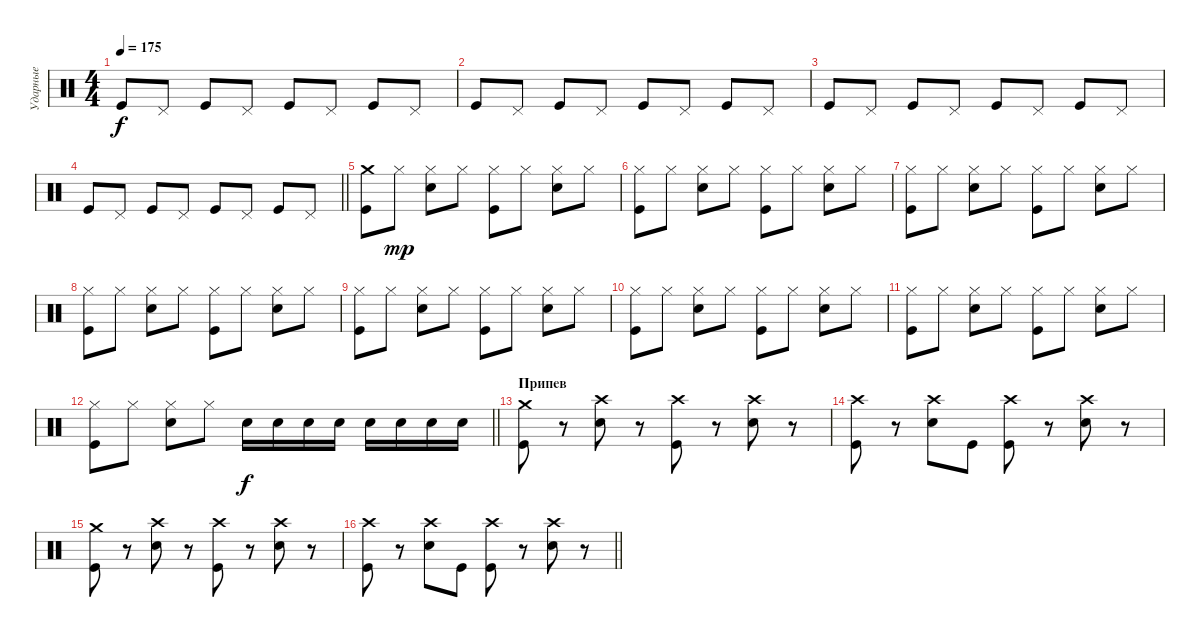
\track ("Ударные" "Ударные") {instrument percussion}
\staff {score}
\articulation defaults
\ts (4 4)
\tempo 175
\clef neutral
\ks c "Kick (hit)".8{dy f} "Pedal Hi-Hat (hit)".8 "Kick (hit)".8 "Pedal Hi-Hat (hit)".8 "Kick (hit)".8 "Pedal Hi-Hat (hit)".8 "Kick (hit)".8 "Pedal Hi-Hat (hit)".8
|
"Kick (hit)".8 "Pedal Hi-Hat (hit)".8 "Kick (hit)".8 "Pedal Hi-Hat (hit)".8 "Kick (hit)".8 "Pedal Hi-Hat (hit)".8 "Kick (hit)".8 "Pedal Hi-Hat (hit)".8 |
"Kick (hit)".8 "Pedal Hi-Hat (hit)".8 "Kick (hit)".8 "Pedal Hi-Hat (hit)".8 "Kick (hit)".8 "Pedal Hi-Hat (hit)".8 "Kick (hit)".8 "Pedal Hi-Hat (hit)".8 |
\barLineRight lightlight "Kick (hit)".8 "Pedal Hi-Hat (hit)".8 "Kick (hit)".8 "Pedal Hi-Hat (hit)".8 "Kick (hit)".8 "Pedal Hi-Hat (hit)".8 "Kick (hit)".8 "Pedal Hi-Hat (hit)".8
|
\section ("" " ")
("Crash medium (hit)" "Kick (hit)").8 "Hi-Hat (closed)".8{dy mp} ("Hi-Hat (closed)" "Electric Snare (hit)").8 "Hi-Hat (closed)".8 ("Hi-Hat (closed)" "Kick (hit)").8 "Hi-Hat (closed)".8 ("Hi-Hat (closed)" "Electric Snare (hit)").8 "Hi-Hat (closed)".8 |
("Hi-Hat (closed)" "Kick (hit)").8 "Hi-Hat (closed)".8 ("Hi-Hat (closed)" "Electric Snare (hit)").8 "Hi-Hat (closed)".8 ("Hi-Hat (closed)" "Kick (hit)").8 "Hi-Hat (closed)".8 ("Hi-Hat (closed)" "Electric Snare (hit)").8 "Hi-Hat (closed)".8 |
("Hi-Hat (closed)" "Kick (hit)").8 "Hi-Hat (closed)".8 ("Hi-Hat (closed)" "Electric Snare (hit)").8 "Hi-Hat (closed)".8 ("Hi-Hat (closed)" "Kick (hit)").8 "Hi-Hat (closed)".8 ("Hi-Hat (closed)" "Electric Snare (hit)").8 "Hi-Hat (closed)".8 |
("Hi-Hat (closed)" "Kick (hit)").8 "Hi-Hat (closed)".8 ("Hi-Hat (closed)" "Electric Snare (hit)").8 "Hi-Hat (closed)".8 ("Hi-Hat (closed)" "Kick (hit)").8 "Hi-Hat (closed)".8 ("Hi-Hat (closed)" "Electric Snare (hit)").8 "Hi-Hat (closed)".8 |
("Hi-Hat (closed)" "Kick (hit)").8 "Hi-Hat (closed)".8 ("Hi-Hat (closed)" "Electric Snare (hit)").8 "Hi-Hat (closed)".8 ("Hi-Hat (closed)" "Kick (hit)").8 "Hi-Hat (closed)".8 ("Hi-Hat (closed)" "Electric Snare (hit)").8 "Hi-Hat (closed)".8 |
("Hi-Hat (closed)" "Kick (hit)").8 "Hi-Hat (closed)".8 ("Hi-Hat (closed)" "Electric Snare (hit)").8 "Hi-Hat (closed)".8 ("Hi-Hat (closed)" "Kick (hit)").8 "Hi-Hat (closed)".8 ("Hi-Hat (closed)" "Electric Snare (hit)").8 "Hi-Hat (closed)".8 |
("Hi-Hat (closed)" "Kick (hit)").8 "Hi-Hat (closed)".8 ("Hi-Hat (closed)" "Electric Snare (hit)").8 "Hi-Hat (closed)".8 ("Hi-Hat (closed)" "Kick (hit)").8 "Hi-Hat (closed)".8 ("Hi-Hat (closed)" "Electric Snare (hit)").8 "Hi-Hat (closed)".8 |
\barLineRight lightlight
("Hi-Hat (closed)" "Kick (hit)").8 "Hi-Hat (closed)".8 ("Hi-Hat (closed)" "Electric Snare (hit)").8 "Hi-Hat (closed)".8 "Electric Snare (hit)".16{dy f} "Electric Snare (hit)".16 "Electric Snare (hit)".16 "Electric Snare (hit)".16 "Electric Snare (hit)".16 "Electric Snare (hit)".16 "Electric Snare (hit)".16 "Electric Snare (hit)".16 |
\section ("" "Припев")
("Crash medium (hit)" "Kick (hit)").8 r.8 ("Crash high (hit)" "Electric Snare (hit)").8 r.8 ("Crash high (hit)" "Kick (hit)").8 r.8 ("Crash high (hit)" "Electric Snare (hit)").8 r.8 |
("Crash high (hit)" "Kick (hit)").8 r.8 ("Crash high (hit)" "Electric Snare (hit)").8 "Kick (hit)".8 ("Crash high (hit)" "Kick (hit)").8 r.8 ("Crash high (hit)" "Electric Snare (hit)").8 r.8 |
("Crash medium (hit)" "Kick (hit)").8 r.8 ("Crash high (hit)" "Electric Snare (hit)").8 r.8 ("Crash high (hit)" "Kick (hit)").8 r.8 ("Crash high (hit)" "Electric Snare (hit)").8 r.8 |
\barLineRight lightlight
("Crash high (hit)" "Kick (hit)").8 r.8 ("Crash high (hit)" "Electric Snare (hit)").8 "Kick (hit)".8 ("Crash high (hit)" "Kick (hit)").8 r.8 ("Crash high (hit)" "Electric Snare (hit)").8 r.8
